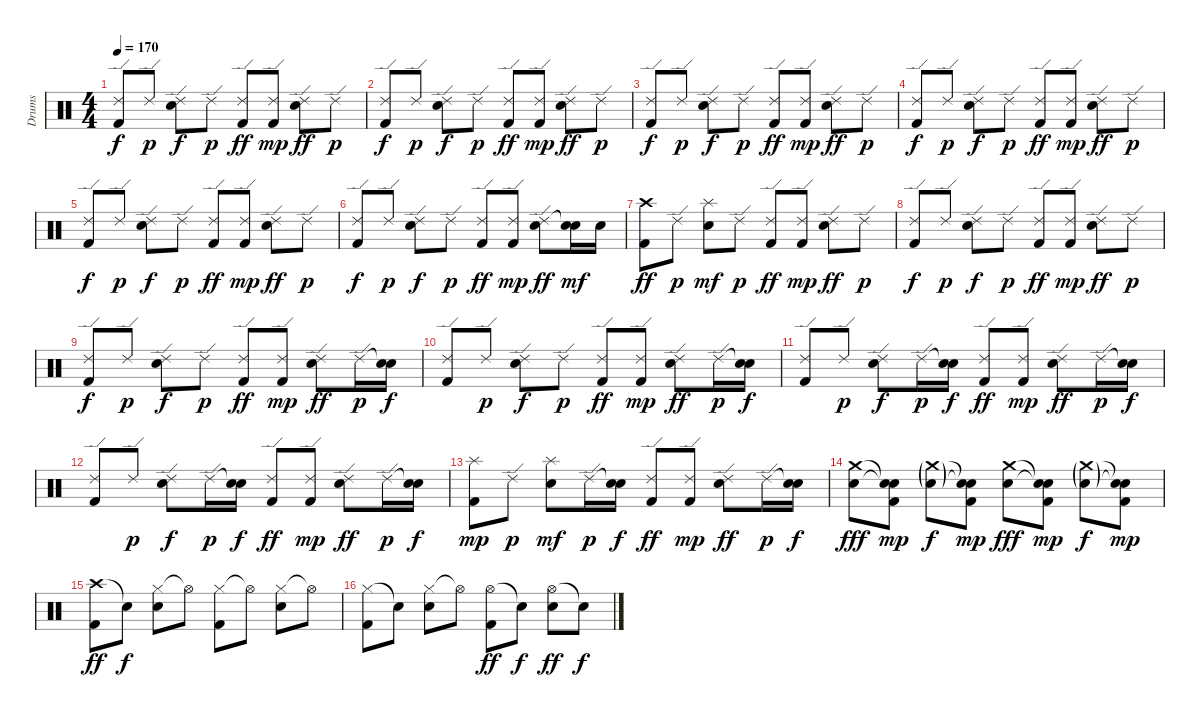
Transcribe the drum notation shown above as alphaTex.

\track ("Drums" "Drums") {instrument percussion}
\staff {score}
\articulation defaults
\ts (4 4)
\tempo 170
\clef neutral
\ks c
("Ride (edge) 2" "Kick (hit) 2").8{dy f} "Ride (edge) 2".8{dy p} ("Ride (edge) 2" "Snare (hit) 2").8{dy f} "Ride (edge) 2".8{dy p} ("Ride (edge) 2" "Kick (hit) 2").8{dy ff} ("Ride (edge) 2" "Kick (hit) 2").8{dy mp} ("Ride (edge) 2" "Snare (hit) 2").8{dy ff} "Ride (edge) 2".8{dy p} |
("Ride (edge) 2" "Kick (hit) 2").8{dy f} "Ride (edge) 2".8{dy p} ("Ride (edge) 2" "Snare (hit) 2").8{dy f} "Ride (edge) 2".8{dy p} ("Ride (edge) 2" "Kick (hit) 2").8{dy ff} ("Ride (edge) 2" "Kick (hit) 2").8{dy mp} ("Ride (edge) 2" "Snare (hit) 2").8{dy ff} "Ride (edge) 2".8{dy p} |
("Ride (edge) 2" "Kick (hit) 2").8{dy f} "Ride (edge) 2".8{dy p} ("Ride (edge) 2" "Snare (hit) 2").8{dy f} "Ride (edge) 2".8{dy p} ("Ride (edge) 2" "Kick (hit) 2").8{dy ff} ("Ride (edge) 2" "Kick (hit) 2").8{dy mp} ("Ride (edge) 2" "Snare (hit) 2").8{dy ff} "Ride (edge) 2".8{dy p} |
("Ride (edge) 2" "Kick (hit) 2").8{dy f} "Ride (edge) 2".8{dy p} ("Ride (edge) 2" "Snare (hit) 2").8{dy f} "Ride (edge) 2".8{dy p} ("Ride (edge) 2" "Kick (hit) 2").8{dy ff} ("Ride (edge) 2" "Kick (hit) 2").8{dy mp} ("Ride (edge) 2" "Snare (hit) 2").8{dy ff} "Ride (edge) 2".8{dy p} |
("Ride (edge) 2" "Kick (hit) 2").8{dy f} "Ride (edge) 2".8{dy p} ("Ride (edge) 2" "Snare (hit) 2").8{dy f} "Ride (edge) 2".8{dy p} ("Ride (edge) 2" "Kick (hit) 2").8{dy ff} ("Ride (edge) 2" "Kick (hit) 2").8{dy mp} ("Ride (edge) 2" "Snare (hit) 2").8{dy ff} "Ride (edge) 2".8{dy p} |
("Ride (edge) 2" "Kick (hit) 2").8{dy f} "Ride (edge) 2".8{dy p} ("Ride (edge) 2" "Snare (hit) 2").8{dy f} "Ride (edge) 2".8{dy p} ("Ride (edge) 2" "Kick (hit) 2").8{dy ff} ("Ride (edge) 2" "Kick (hit) 2").8{dy mp} ("Ride (edge) 2" "Snare (hit) 2").8{dy ff} ("Snare (hit)"{t} "Snare (hit) 2").16{dy mf} "Snare (hit) 2".16 |
("Crash high (hit)" "Kick (hit) 2").8{dy ff} "Ride (edge) 2".8{dy p} ("Splash (hit)" "Snare (hit) 2").8{dy mf} "Ride (edge) 2".8{dy p} ("Ride (edge) 2" "Kick (hit) 2").8{dy ff} ("Ride (edge) 2" "Kick (hit) 2").8{dy mp} ("Ride (edge) 2" "Snare (hit) 2").8{dy ff} "Ride (edge) 2".8{dy p} |
("Ride (edge) 2" "Kick (hit) 2").8{dy f} "Ride (edge) 2".8{dy p} ("Ride (edge) 2" "Snare (hit) 2").8{dy f} "Ride (edge) 2".8{dy p} ("Ride (edge) 2" "Kick (hit) 2").8{dy ff} ("Ride (edge) 2" "Kick (hit) 2").8{dy mp} ("Ride (edge) 2" "Snare (hit) 2").8{dy ff} "Ride (edge) 2".8{dy p} |
("Ride (edge) 2" "Kick (hit) 2").8{dy f} "Ride (edge) 2".8{dy p} ("Ride (edge) 2" "Snare (hit) 2").8{dy f} "Ride (edge) 2".8{dy p} ("Ride (edge) 2" "Kick (hit) 2").8{dy ff} ("Ride (edge) 2" "Kick (hit) 2").8{dy mp} ("Ride (edge) 2" "Snare (hit) 2").8{dy ff} "Ride (edge) 2".16{dy p} ("Snare (hit)"{t} "Snare (hit) 2").16{dy f} |
("Ride (edge) 2" "Kick (hit) 2").8 "Ride (edge) 2".8{dy p} ("Ride (edge) 2" "Snare (hit) 2").8{dy f} "Ride (edge) 2".8{dy p} ("Ride (edge) 2" "Kick (hit) 2").8{dy ff} ("Ride (edge) 2" "Kick (hit) 2").8{dy mp} ("Ride (edge) 2" "Snare (hit) 2").8{dy ff} "Ride (edge) 2".16{dy p} ("Snare (hit)"{t} "Snare (hit) 2").16{dy f} |
("Ride (edge) 2" "Kick (hit) 2").8 "Ride (edge) 2".8{dy p} ("Ride (edge) 2" "Snare (hit) 2").8{dy f} "Ride (edge) 2".16{dy p} ("Snare (hit)"{t} "Snare (hit) 2").16{dy f} ("Ride (edge) 2" "Kick (hit) 2").8{dy ff} ("Ride (edge) 2" "Kick (hit) 2").8{dy mp} ("Ride (edge) 2" "Snare (hit) 2").8{dy ff} "Ride (edge) 2".16{dy p} ("Snare (hit)"{t} "Snare (hit) 2").16{dy f} |
("Ride (edge) 2" "Kick (hit) 2").8 "Ride (edge) 2".8{dy p} ("Ride (edge) 2" "Snare (hit) 2").8{dy f} "Ride (edge) 2".16{dy p} ("Snare (hit)"{t} "Snare (hit) 2").16{dy f} ("Ride (edge) 2" "Kick (hit) 2").8{dy ff} ("Ride (edge) 2" "Kick (hit) 2").8{dy mp} ("Ride (edge) 2" "Snare (hit) 2").8{dy ff} "Ride (edge) 2".16{dy p} ("Snare (hit)"{t} "Snare (hit) 2").16{dy f} |
("Splash (hit)" "Kick (hit) 2").8{dy mp} "Ride (edge) 2".8{dy p} ("Splash (hit)" "Snare (hit) 2").8{dy mf} "Ride (edge) 2".16{dy p} ("Snare (hit)"{t} "Snare (hit) 2").16{dy f} ("Ride (edge) 2" "Kick (hit) 2").8{dy ff} ("Ride (edge) 2" "Kick (hit) 2").8{dy mp} ("Ride (edge) 2" "Snare (hit) 2").8{dy ff} "Ride (edge) 2".16{dy p} ("Snare (hit)"{t} "Snare (hit) 2").16{dy f} |
("Crash medium (hit)" "Snare (hit) 2").8{dy fff} ("Snare (hit)"{t} "Snare (hit)"{t} "Kick (hit) 2").8{dy mp} ("Crash medium (hit)"{g} "Snare (hit) 2"{g}).8{dy f} ("Snare (hit)"{t} "Snare (hit)"{t} "Kick (hit) 2").8{dy mp} ("Crash medium (hit)" "Snare (hit) 2").8{dy fff} ("Snare (hit)"{t} "Snare (hit)"{t} "Kick (hit) 2").8{dy mp} ("Crash medium (hit)"{g} "Snare (hit) 2"{g}).8{dy f} ("Snare (hit)"{t} "Snare (hit)"{t} "Kick (hit) 2").8{dy mp} |
("Crash high (hit)" "Kick (hit) 2").8{dy ff} "Snare (hit)"{t}.8{dy f} ("Hi-Hat (closed)" "Snare (hit) 2").8 "Hi-Hat (open)"{t}.8 ("Hi-Hat (closed)" "Kick (hit) 2").8 "Hi-Hat (open)"{t}.8 ("Hi-Hat (closed)" "Snare (hit) 2").8 "Hi-Hat (open)"{t}.8 |
("Hi-Hat (closed)" "Kick (hit) 2").8 "Snare (hit)"{t}.8 ("Hi-Hat (closed)" "Snare (hit) 2").8 "Hi-Hat (open)"{t}.8 ("Hi-Hat (open)" "Kick (hit) 2").8{dy ff} "Snare (hit)"{t}.8{dy f} ("Hi-Hat (open)" "Snare (hit) 2").8{dy ff} "Snare (hit)"{t}.8{dy f}
